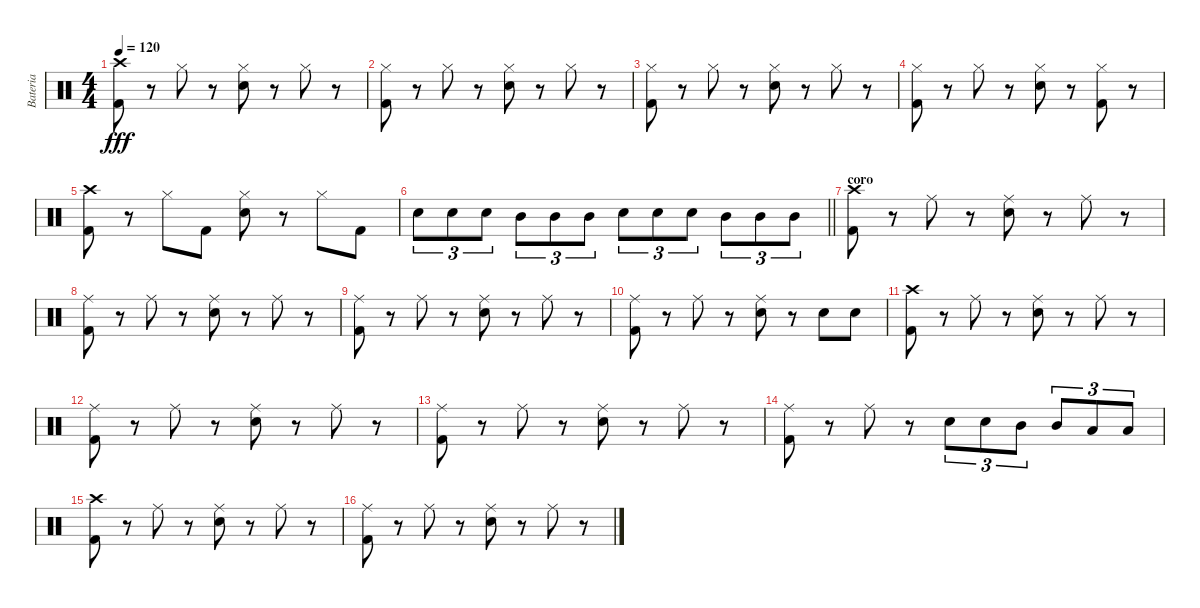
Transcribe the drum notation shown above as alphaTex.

\track ("Bateria" "Bateria") {instrument percussion}
\staff {score}
\articulation defaults
\ts (4 4)
\tempo 120
\clef neutral
\ks c
("Crash high (hit)" "Kick (hit) 2").8{dy fff} r.8 "Hi-Hat (closed)".8 r.8 ("Hi-Hat (closed)" "Electric Snare (hit)").8 r.8 "Hi-Hat (closed)".8 r.8 |
("Hi-Hat (closed)" "Kick (hit) 2").8 r.8 "Hi-Hat (closed)".8 r.8 ("Hi-Hat (closed)" "Electric Snare (hit)").8 r.8 "Hi-Hat (closed)".8 r.8 |
("Hi-Hat (closed)" "Kick (hit) 2").8 r.8 "Hi-Hat (closed)".8 r.8 ("Hi-Hat (closed)" "Electric Snare (hit)").8 r.8 "Hi-Hat (closed)".8 r.8 |
("Hi-Hat (closed)" "Kick (hit) 2").8 r.8 "Hi-Hat (closed)".8 r.8 ("Hi-Hat (closed)" "Electric Snare (hit)").8 r.8 ("Hi-Hat (closed)" "Kick (hit) 2").8 r.8 |
("Crash high (hit)" "Kick (hit) 2").8 r.8 "Hi-Hat (closed)".8 "Kick (hit) 2".8 ("Hi-Hat (closed)" "Electric Snare (hit)").8 r.8 "Hi-Hat (closed)".8 "Kick (hit) 2".8 |
\barLineRight lightlight "Electric Snare (hit)".8{tu (3 2)} "Electric Snare (hit)".8{tu (3 2)} "Electric Snare (hit)".8{tu (3 2)} "Mid Tom (hit)".8{tu (3 2)} "Mid Tom (hit)".8{tu (3 2)} "Mid Tom (hit)".8{tu (3 2)} "Electric Snare (hit)".8{tu (3 2)} "Electric Snare (hit)".8{tu (3 2)} "Electric Snare (hit)".8{tu (3 2)} "Mid Tom (hit)".8{tu (3 2)} "Mid Tom (hit)".8{tu (3 2)} "Mid Tom (hit)".8{tu (3 2)}
|
\section ("" "coro")
("Crash high (hit)" "Kick (hit) 2").8 r.8 "Ride (middle)".8 r.8 ("Ride (middle)" "Electric Snare (hit)").8 r.8 "Ride (middle)".8 r.8 |
("Ride (middle)" "Kick (hit) 2").8 r.8 "Ride (middle)".8 r.8 ("Ride (middle)" "Electric Snare (hit)").8 r.8 "Ride (middle)".8 r.8 |
("Ride (middle)" "Kick (hit) 2").8 r.8 "Ride (middle)".8 r.8 ("Ride (middle)" "Electric Snare (hit)").8 r.8 "Ride (middle)".8 r.8 |
("Ride (middle)" "Kick (hit) 2").8 r.8 "Ride (middle)".8 r.8 ("Ride (middle)" "Electric Snare (hit)").8 r.8 "Electric Snare (hit)".8 "Electric Snare (hit)".8 |
("Crash high (hit)" "Kick (hit) 2").8 r.8 "Ride (middle)".8 r.8 ("Ride (middle)" "Electric Snare (hit)").8 r.8 "Ride (middle)".8 r.8 |
("Ride (middle)" "Kick (hit) 2").8 r.8 "Ride (middle)".8 r.8 ("Ride (middle)" "Electric Snare (hit)").8 r.8 "Ride (middle)".8 r.8 |
("Ride (middle)" "Kick (hit) 2").8 r.8 "Ride (middle)".8 r.8 ("Ride (middle)" "Electric Snare (hit)").8 r.8 "Ride (middle)".8 r.8 |
("Ride (middle)" "Kick (hit) 2").8 r.8 "Ride (middle)".8 r.8 "Electric Snare (hit)".8{tu (3 2)} "Electric Snare (hit)".8{tu (3 2)} "Mid Tom (hit)".8{tu (3 2)} "Mid Tom (hit)".8{tu (3 2)} "Low Tom (hit)".8{tu (3 2)} "Low Tom (hit)".8{tu (3 2)} |
("Crash high (hit)" "Kick (hit) 2").8 r.8 "Ride (middle)".8 r.8 ("Ride (middle)" "Electric Snare (hit)").8 r.8 "Ride (middle)".8 r.8 |
("Ride (middle)" "Kick (hit) 2").8 r.8 "Ride (middle)".8 r.8 ("Ride (middle)" "Electric Snare (hit)").8 r.8 "Ride (middle)".8 r.8
